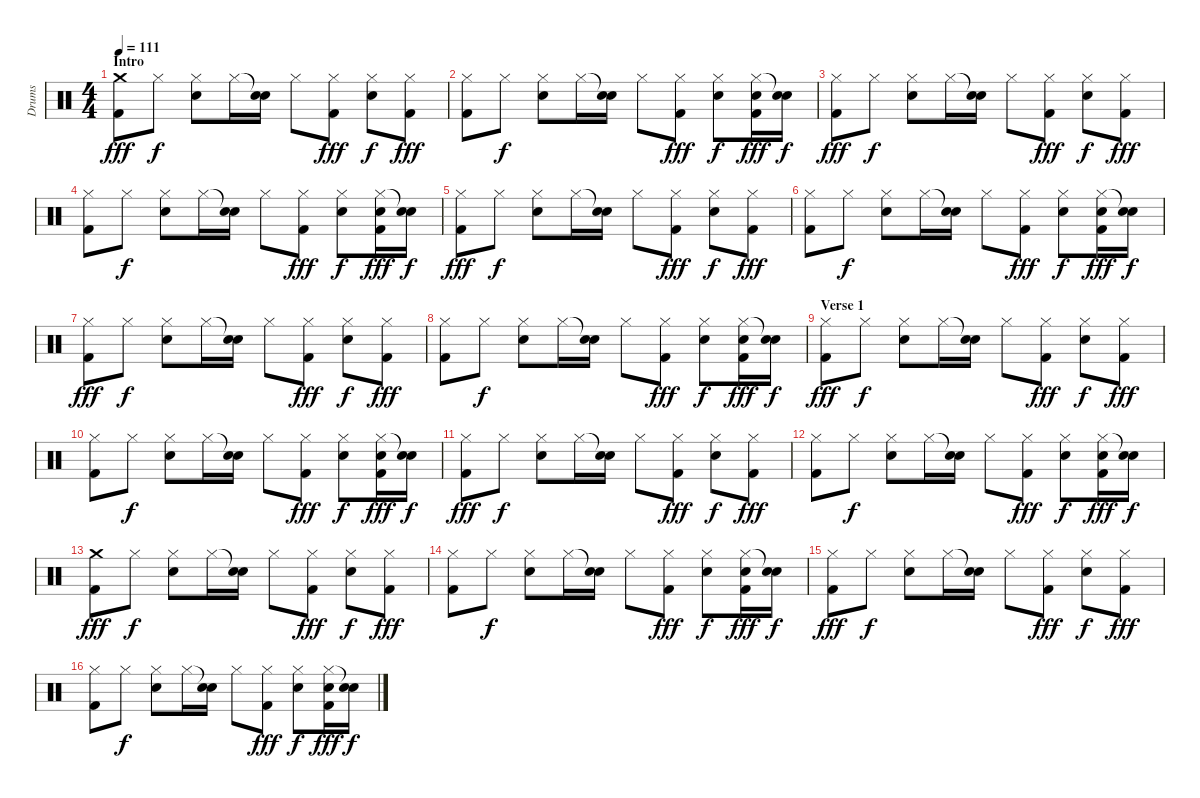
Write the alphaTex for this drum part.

\track ("Drums" "Drums") {instrument percussion}
\staff {score}
\articulation defaults
\ts (4 4)
\section ("" "Intro")
\tempo 111
\clef neutral
\ks c
("Crash medium (hit)" "Kick (hit) 2").8{dy fff} "Hi-Hat (closed)".8{dy f} ("Hi-Hat (closed)" "Snare (hit) 2").8 "Hi-Hat (closed)".16 ("Snare (hit)"{t} "Snare (hit) 2").16 "Hi-Hat (closed)".8 ("Hi-Hat (closed)" "Kick (hit) 2").8{dy fff} ("Hi-Hat (closed)" "Snare (hit) 2").8{dy f} ("Hi-Hat (closed)" "Kick (hit) 2").8{dy fff} |
("Hi-Hat (closed)" "Kick (hit) 2").8 "Hi-Hat (closed)".8{dy f} ("Hi-Hat (closed)" "Snare (hit) 2").8 "Hi-Hat (closed)".16 ("Snare (hit)"{t} "Snare (hit) 2").16 "Hi-Hat (closed)".8 ("Hi-Hat (closed)" "Kick (hit) 2").8{dy fff} ("Hi-Hat (closed)" "Snare (hit) 2").8{dy f} ("Hi-Hat (closed)" "Snare (hit) 2" "Kick (hit) 2").16{dy fff} ("Snare (hit)"{t} "Snare (hit) 2").16{dy f} |
("Hi-Hat (closed)" "Kick (hit) 2").8{dy fff} "Hi-Hat (closed)".8{dy f} ("Hi-Hat (closed)" "Snare (hit) 2").8 "Hi-Hat (closed)".16 ("Snare (hit)"{t} "Snare (hit) 2").16 "Hi-Hat (closed)".8 ("Hi-Hat (closed)" "Kick (hit) 2").8{dy fff} ("Hi-Hat (closed)" "Snare (hit) 2").8{dy f} ("Hi-Hat (closed)" "Kick (hit) 2").8{dy fff} |
("Hi-Hat (closed)" "Kick (hit) 2").8 "Hi-Hat (closed)".8{dy f} ("Hi-Hat (closed)" "Snare (hit) 2").8 "Hi-Hat (closed)".16 ("Snare (hit)"{t} "Snare (hit) 2").16 "Hi-Hat (closed)".8 ("Hi-Hat (closed)" "Kick (hit) 2").8{dy fff} ("Hi-Hat (closed)" "Snare (hit) 2").8{dy f} ("Hi-Hat (closed)" "Snare (hit) 2" "Kick (hit) 2").16{dy fff} ("Snare (hit)"{t} "Snare (hit) 2").16{dy f} |
("Hi-Hat (closed)" "Kick (hit) 2").8{dy fff} "Hi-Hat (closed)".8{dy f} ("Hi-Hat (closed)" "Snare (hit) 2").8 "Hi-Hat (closed)".16 ("Snare (hit)"{t} "Snare (hit) 2").16 "Hi-Hat (closed)".8 ("Hi-Hat (closed)" "Kick (hit) 2").8{dy fff} ("Hi-Hat (closed)" "Snare (hit) 2").8{dy f} ("Hi-Hat (closed)" "Kick (hit) 2").8{dy fff} |
("Hi-Hat (closed)" "Kick (hit) 2").8 "Hi-Hat (closed)".8{dy f} ("Hi-Hat (closed)" "Snare (hit) 2").8 "Hi-Hat (closed)".16 ("Snare (hit)"{t} "Snare (hit) 2").16 "Hi-Hat (closed)".8 ("Hi-Hat (closed)" "Kick (hit) 2").8{dy fff} ("Hi-Hat (closed)" "Snare (hit) 2").8{dy f} ("Hi-Hat (closed)" "Snare (hit) 2" "Kick (hit) 2").16{dy fff} ("Snare (hit)"{t} "Snare (hit) 2").16{dy f} |
("Hi-Hat (closed)" "Kick (hit) 2").8{dy fff} "Hi-Hat (closed)".8{dy f} ("Hi-Hat (closed)" "Snare (hit) 2").8 "Hi-Hat (closed)".16 ("Snare (hit)"{t} "Snare (hit) 2").16 "Hi-Hat (closed)".8 ("Hi-Hat (closed)" "Kick (hit) 2").8{dy fff} ("Hi-Hat (closed)" "Snare (hit) 2").8{dy f} ("Hi-Hat (closed)" "Kick (hit) 2").8{dy fff} |
("Hi-Hat (closed)" "Kick (hit) 2").8 "Hi-Hat (closed)".8{dy f} ("Hi-Hat (closed)" "Snare (hit) 2").8 "Hi-Hat (closed)".16 ("Snare (hit)"{t} "Snare (hit) 2").16 "Hi-Hat (closed)".8 ("Hi-Hat (closed)" "Kick (hit) 2").8{dy fff} ("Hi-Hat (closed)" "Snare (hit) 2").8{dy f} ("Hi-Hat (closed)" "Snare (hit) 2" "Kick (hit) 2").16{dy fff} ("Snare (hit)"{t} "Snare (hit) 2").16{dy f} |
\section ("" "Verse 1")
("Hi-Hat (closed)" "Kick (hit) 2").8{dy fff} "Hi-Hat (closed)".8{dy f} ("Hi-Hat (closed)" "Snare (hit) 2").8 "Hi-Hat (closed)".16 ("Snare (hit)"{t} "Snare (hit) 2").16 "Hi-Hat (closed)".8 ("Hi-Hat (closed)" "Kick (hit) 2").8{dy fff} ("Hi-Hat (closed)" "Snare (hit) 2").8{dy f} ("Hi-Hat (closed)" "Kick (hit) 2").8{dy fff} |
("Hi-Hat (closed)" "Kick (hit) 2").8 "Hi-Hat (closed)".8{dy f} ("Hi-Hat (closed)" "Snare (hit) 2").8 "Hi-Hat (closed)".16 ("Snare (hit)"{t} "Snare (hit) 2").16 "Hi-Hat (closed)".8 ("Hi-Hat (closed)" "Kick (hit) 2").8{dy fff} ("Hi-Hat (closed)" "Snare (hit) 2").8{dy f} ("Hi-Hat (closed)" "Snare (hit) 2" "Kick (hit) 2").16{dy fff} ("Snare (hit)"{t} "Snare (hit) 2").16{dy f} |
("Hi-Hat (closed)" "Kick (hit) 2").8{dy fff} "Hi-Hat (closed)".8{dy f} ("Hi-Hat (closed)" "Snare (hit) 2").8 "Hi-Hat (closed)".16 ("Snare (hit)"{t} "Snare (hit) 2").16 "Hi-Hat (closed)".8 ("Hi-Hat (closed)" "Kick (hit) 2").8{dy fff} ("Hi-Hat (closed)" "Snare (hit) 2").8{dy f} ("Hi-Hat (closed)" "Kick (hit) 2").8{dy fff} |
("Hi-Hat (closed)" "Kick (hit) 2").8 "Hi-Hat (closed)".8{dy f} ("Hi-Hat (closed)" "Snare (hit) 2").8 "Hi-Hat (closed)".16 ("Snare (hit)"{t} "Snare (hit) 2").16 "Hi-Hat (closed)".8 ("Hi-Hat (closed)" "Kick (hit) 2").8{dy fff} ("Hi-Hat (closed)" "Snare (hit) 2").8{dy f} ("Hi-Hat (closed)" "Snare (hit) 2" "Kick (hit) 2").16{dy fff} ("Snare (hit)"{t} "Snare (hit) 2").16{dy f} |
("Crash medium (hit)" "Kick (hit) 2").8{dy fff} "Hi-Hat (closed)".8{dy f} ("Hi-Hat (closed)" "Snare (hit) 2").8 "Hi-Hat (closed)".16 ("Snare (hit)"{t} "Snare (hit) 2").16 "Hi-Hat (closed)".8 ("Hi-Hat (closed)" "Kick (hit) 2").8{dy fff} ("Hi-Hat (closed)" "Snare (hit) 2").8{dy f} ("Hi-Hat (closed)" "Kick (hit) 2").8{dy fff} |
("Hi-Hat (closed)" "Kick (hit) 2").8 "Hi-Hat (closed)".8{dy f} ("Hi-Hat (closed)" "Snare (hit) 2").8 "Hi-Hat (closed)".16 ("Snare (hit)"{t} "Snare (hit) 2").16 "Hi-Hat (closed)".8 ("Hi-Hat (closed)" "Kick (hit) 2").8{dy fff} ("Hi-Hat (closed)" "Snare (hit) 2").8{dy f} ("Hi-Hat (closed)" "Snare (hit) 2" "Kick (hit) 2").16{dy fff} ("Snare (hit)"{t} "Snare (hit) 2").16{dy f} |
("Hi-Hat (closed)" "Kick (hit) 2").8{dy fff} "Hi-Hat (closed)".8{dy f} ("Hi-Hat (closed)" "Snare (hit) 2").8 "Hi-Hat (closed)".16 ("Snare (hit)"{t} "Snare (hit) 2").16 "Hi-Hat (closed)".8 ("Hi-Hat (closed)" "Kick (hit) 2").8{dy fff} ("Hi-Hat (closed)" "Snare (hit) 2").8{dy f} ("Hi-Hat (closed)" "Kick (hit) 2").8{dy fff} |
("Hi-Hat (closed)" "Kick (hit) 2").8 "Hi-Hat (closed)".8{dy f} ("Hi-Hat (closed)" "Snare (hit) 2").8 "Hi-Hat (closed)".16 ("Snare (hit)"{t} "Snare (hit) 2").16 "Hi-Hat (closed)".8 ("Hi-Hat (closed)" "Kick (hit) 2").8{dy fff} ("Hi-Hat (closed)" "Snare (hit) 2").8{dy f} ("Hi-Hat (closed)" "Snare (hit) 2" "Kick (hit) 2").16{dy fff} ("Snare (hit)"{t} "Snare (hit) 2").16{dy f}
